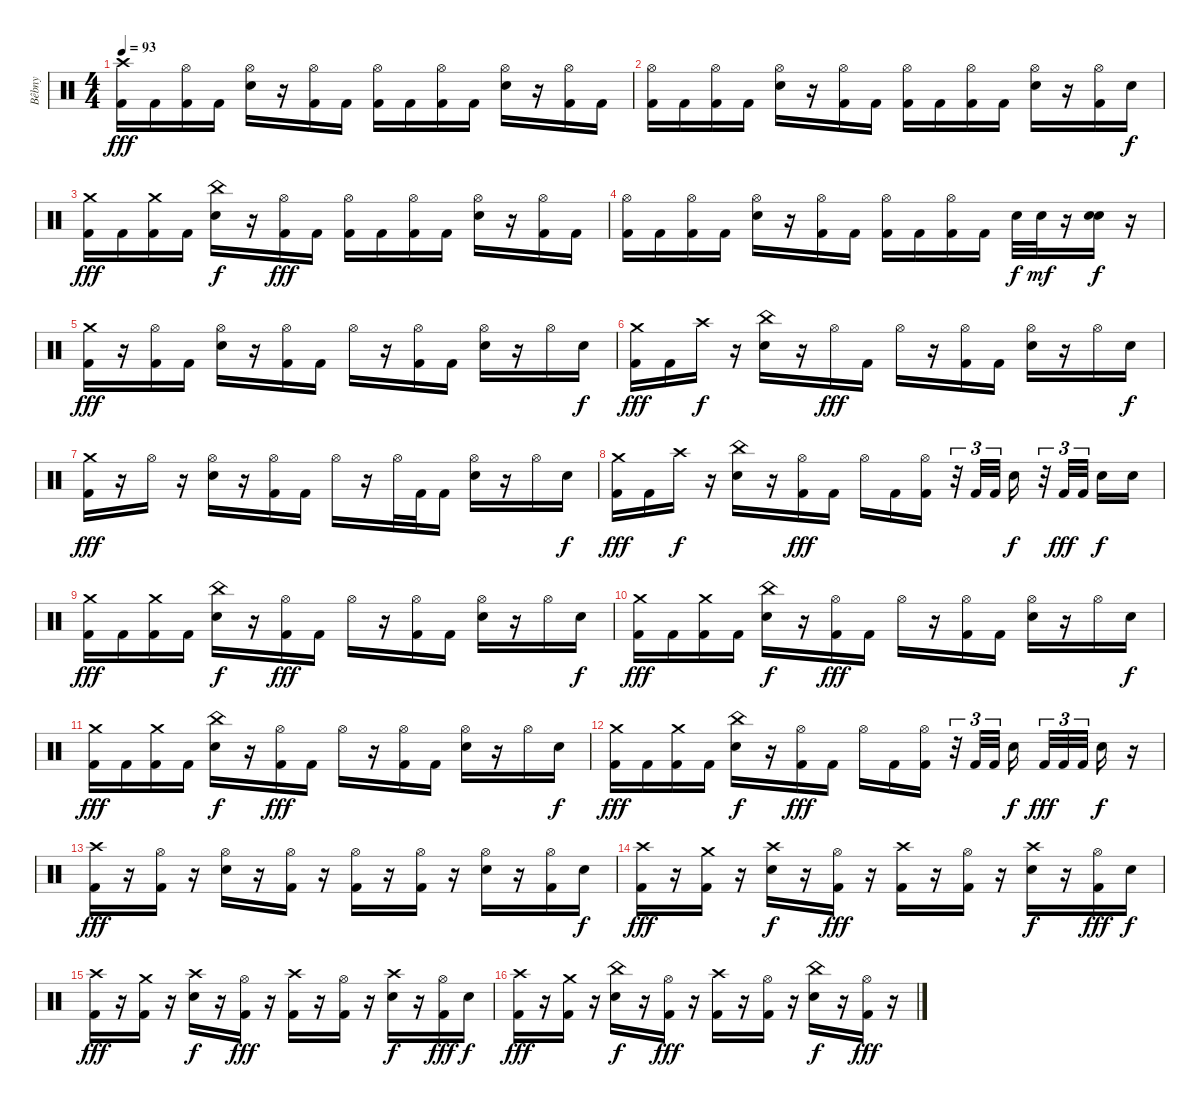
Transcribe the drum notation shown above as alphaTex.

\track ("Bêbny" "Bêbny") {instrument percussion}
\staff {score}
\articulation defaults
\ts (4 4)
\tempo 93
\clef neutral
\ks c
("Crash high (hit)" "Kick (hit) 2").16{dy fff} "Kick (hit) 2".16 ("Hi-Hat (open)" "Kick (hit) 2").16 "Kick (hit) 2".16 ("Hi-Hat (open)" "Electric Snare (hit)").16 r.16 ("Hi-Hat (open)" "Kick (hit) 2").16 "Kick (hit) 2".16 ("Hi-Hat (open)" "Kick (hit) 2").16 "Kick (hit) 2".16 ("Hi-Hat (open)" "Kick (hit) 2").16 "Kick (hit) 2".16 ("Hi-Hat (open)" "Electric Snare (hit)").16 r.16 ("Hi-Hat (open)" "Kick (hit) 2").16 "Kick (hit) 2".16 |
("Hi-Hat (open)" "Kick (hit) 2").16 "Kick (hit) 2".16 ("Hi-Hat (open)" "Kick (hit) 2").16 "Kick (hit) 2".16 ("Hi-Hat (open)" "Electric Snare (hit)").16 r.16 ("Hi-Hat (open)" "Kick (hit) 2").16 "Kick (hit) 2".16 ("Hi-Hat (open)" "Kick (hit) 2").16 "Kick (hit) 2".16 ("Hi-Hat (open)" "Kick (hit) 2").16 "Kick (hit) 2".16 ("Hi-Hat (open)" "Electric Snare (hit)").16 r.16 ("Hi-Hat (open)" "Kick (hit) 2").16 "Electric Snare (hit)".16{dy f} |
("Crash medium (hit)" "Kick (hit) 2").16{dy fff} "Kick (hit) 2".16 ("Crash medium (hit)" "Kick (hit) 2").16 "Kick (hit) 2".16 ("China (hit)" "Electric Snare (hit)").16{dy f} r.16 ("Hi-Hat (open)" "Kick (hit) 2").16{dy fff} "Kick (hit) 2".16 ("Hi-Hat (open)" "Kick (hit) 2").16 "Kick (hit) 2".16 ("Hi-Hat (open)" "Kick (hit) 2").16 "Kick (hit) 2".16 ("Hi-Hat (open)" "Electric Snare (hit)").16 r.16 ("Hi-Hat (open)" "Kick (hit) 2").16 "Kick (hit) 2".16 |
("Hi-Hat (open)" "Kick (hit) 2").16 "Kick (hit) 2".16 ("Hi-Hat (open)" "Kick (hit) 2").16 "Kick (hit) 2".16 ("Hi-Hat (open)" "Electric Snare (hit)").16 r.16 ("Hi-Hat (open)" "Kick (hit) 2").16 "Kick (hit) 2".16 ("Hi-Hat (open)" "Kick (hit) 2").16 "Kick (hit) 2".16 ("Hi-Hat (open)" "Kick (hit) 2").16 "Kick (hit) 2".16 "Electric Snare (hit)".32{dy f} "Electric Snare (hit)".32{dy mf} r.16 ("Electric Snare (hit)" "Electric Snare (hit)").16{bu 120 dy f} r.16 |
("Crash medium (hit)" "Kick (hit) 2").16{dy fff} r.16 ("Hi-Hat (open)" "Kick (hit) 2").16 "Kick (hit) 2".16 ("Hi-Hat (open)" "Electric Snare (hit)").16 r.16 ("Hi-Hat (open)" "Kick (hit) 2").16 "Kick (hit) 2".16 "Hi-Hat (open)".16 r.16 ("Hi-Hat (open)" "Kick (hit) 2").16 "Kick (hit) 2".16 ("Hi-Hat (open)" "Electric Snare (hit)").16 r.16 "Hi-Hat (open)".16 "Electric Snare (hit)".16{dy f} |
("Crash medium (hit)" "Kick (hit) 2").16{dy fff} "Kick (hit) 2".16 "Crash high (hit)".16{dy f} r.16 ("China (hit)" "Electric Snare (hit)").16 r.16 "Hi-Hat (open)".16{dy fff} "Kick (hit) 2".16 "Hi-Hat (open)".16 r.16 ("Hi-Hat (open)" "Kick (hit) 2").16 "Kick (hit) 2".16 ("Hi-Hat (open)" "Electric Snare (hit)").16 r.16 "Hi-Hat (open)".16 "Electric Snare (hit)".16{dy f} |
("Crash medium (hit)" "Kick (hit) 2").16{dy fff} r.16 "Hi-Hat (open)".16 r.16 ("Hi-Hat (open)" "Electric Snare (hit)").16 r.16 ("Hi-Hat (open)" "Kick (hit) 2").16 "Kick (hit) 2".16 "Hi-Hat (open)".16 r.16 "Hi-Hat (open)".32 "Kick (hit) 2".32 "Kick (hit) 2".16 ("Hi-Hat (open)" "Electric Snare (hit)").16 r.16 "Hi-Hat (open)".16 "Electric Snare (hit)".16{dy f} |
("Crash medium (hit)" "Kick (hit) 2").16{dy fff} "Kick (hit) 2".16 "Crash high (hit)".16{dy f} r.16 ("China (hit)" "Electric Snare (hit)").16 r.16 ("Hi-Hat (open)" "Kick (hit) 2").16{dy fff} "Kick (hit) 2".16 "Hi-Hat (open)".16 "Kick (hit) 2".16 ("Hi-Hat (open)" "Kick (hit) 2").16 r.32{tu (3 2)} "Kick (hit) 2".32{tu (3 2)} "Kick (hit) 2".32{tu (3 2)} "Electric Snare (hit)".16{dy f} r.32{tu (3 2)} "Kick (hit) 2".32{tu (3 2) dy fff} "Kick (hit) 2".32{tu (3 2)} "Electric Snare (hit)".16{dy f} "Electric Snare (hit)".16 |
("Crash medium (hit)" "Kick (hit) 2").16{dy fff} "Kick (hit) 2".16 ("Crash medium (hit)" "Kick (hit) 2").16 "Kick (hit) 2".16 ("China (hit)" "Electric Snare (hit)").16{dy f} r.16 ("Hi-Hat (open)" "Kick (hit) 2").16{dy fff} "Kick (hit) 2".16 "Hi-Hat (open)".16 r.16 ("Hi-Hat (open)" "Kick (hit) 2").16 "Kick (hit) 2".16 ("Hi-Hat (open)" "Electric Snare (hit)").16 r.16 "Hi-Hat (open)".16 "Electric Snare (hit)".16{dy f} |
("Crash medium (hit)" "Kick (hit) 2").16{dy fff} "Kick (hit) 2".16 ("Crash medium (hit)" "Kick (hit) 2").16 "Kick (hit) 2".16 ("China (hit)" "Electric Snare (hit)").16{dy f} r.16 ("Hi-Hat (open)" "Kick (hit) 2").16{dy fff} "Kick (hit) 2".16 "Hi-Hat (open)".16 r.16 ("Hi-Hat (open)" "Kick (hit) 2").16 "Kick (hit) 2".16 ("Hi-Hat (open)" "Electric Snare (hit)").16 r.16 "Hi-Hat (open)".16 "Electric Snare (hit)".16{dy f} |
("Crash medium (hit)" "Kick (hit) 2").16{dy fff} "Kick (hit) 2".16 ("Crash medium (hit)" "Kick (hit) 2").16 "Kick (hit) 2".16 ("China (hit)" "Electric Snare (hit)").16{dy f} r.16 ("Hi-Hat (open)" "Kick (hit) 2").16{dy fff} "Kick (hit) 2".16 "Hi-Hat (open)".16 r.16 ("Hi-Hat (open)" "Kick (hit) 2").16 "Kick (hit) 2".16 ("Hi-Hat (open)" "Electric Snare (hit)").16 r.16 "Hi-Hat (open)".16 "Electric Snare (hit)".16{dy f} |
("Crash medium (hit)" "Kick (hit) 2").16{dy fff} "Kick (hit) 2".16 ("Crash medium (hit)" "Kick (hit) 2").16 "Kick (hit) 2".16 ("China (hit)" "Electric Snare (hit)").16{dy f} r.16 ("Hi-Hat (open)" "Kick (hit) 2").16{dy fff} "Kick (hit) 2".16 "Hi-Hat (open)".16 "Kick (hit) 2".16 ("Hi-Hat (open)" "Kick (hit) 2").16 r.32{tu (3 2)} "Kick (hit) 2".32{tu (3 2)} "Kick (hit) 2".32{tu (3 2)} "Electric Snare (hit)".16{dy f} "Kick (hit) 2".32{tu (3 2) dy fff} "Kick (hit) 2".32{tu (3 2)} "Kick (hit) 2".32{tu (3 2)} "Electric Snare (hit)".16{dy f} r.16 |
("Crash high (hit)" "Kick (hit) 2").16{dy fff} r.16 ("Hi-Hat (open)" "Kick (hit) 2").16 r.16 ("Hi-Hat (open)" "Electric Snare (hit)").16 r.16 ("Hi-Hat (open)" "Kick (hit) 2").16 r.16 ("Hi-Hat (open)" "Kick (hit) 2").16 r.16 ("Hi-Hat (open)" "Kick (hit) 2").16 r.16 ("Hi-Hat (open)" "Electric Snare (hit)").16 r.16 ("Hi-Hat (open)" "Kick (hit) 2").16 "Electric Snare (hit)".16{dy f} |
("Crash high (hit)" "Kick (hit) 2").16{dy fff} r.16 ("Crash medium (hit)" "Kick (hit) 2").16 r.16 ("Crash high (hit)" "Electric Snare (hit)").16{dy f} r.16 ("Hi-Hat (open)" "Kick (hit) 2").16{dy fff} r.16 ("Crash high (hit)" "Kick (hit) 2").16 r.16 ("Hi-Hat (open)" "Kick (hit) 2").16 r.16 ("Crash high (hit)" "Electric Snare (hit)").16{dy f} r.16 ("Hi-Hat (open)" "Kick (hit) 2").16{dy fff} "Electric Snare (hit)".16{dy f} |
("Crash high (hit)" "Kick (hit) 2").16{dy fff} r.16 ("Crash medium (hit)" "Kick (hit) 2").16 r.16 ("Crash high (hit)" "Electric Snare (hit)").16{dy f} r.16 ("Hi-Hat (open)" "Kick (hit) 2").16{dy fff} r.16 ("Crash high (hit)" "Kick (hit) 2").16 r.16 ("Hi-Hat (open)" "Kick (hit) 2").16 r.16 ("Crash high (hit)" "Electric Snare (hit)").16{dy f} r.16 ("Hi-Hat (open)" "Kick (hit) 2").16{dy fff} "Electric Snare (hit)".16{dy f} |
("Crash high (hit)" "Kick (hit) 2").16{dy fff} r.16 ("Crash medium (hit)" "Kick (hit) 2").16 r.16 ("China (hit)" "Electric Snare (hit)").16{dy f} r.16 ("Hi-Hat (open)" "Kick (hit) 2").16{dy fff} r.16 ("Crash high (hit)" "Kick (hit) 2").16 r.16 ("Hi-Hat (open)" "Kick (hit) 2").16 r.16 ("China (hit)" "Electric Snare (hit)").16{dy f} r.16 ("Hi-Hat (open)" "Kick (hit) 2").16{dy fff} r.16
